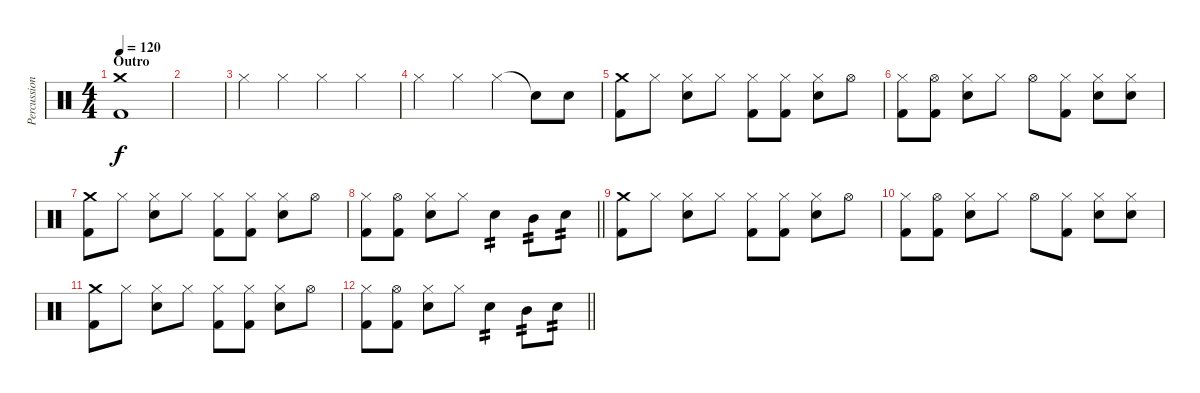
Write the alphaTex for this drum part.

\track ("Percussion" "Percussion") {instrument percussion}
\staff {score}
\articulation defaults
\ts (4 4)
\section ("" "Outro")
\tempo 120
\clef neutral
\ks c
("Crash medium (hit)" "Kick (hit) 2").1{dy f} |
|
"Hi-Hat (closed)".4 "Hi-Hat (closed)".4 "Hi-Hat (closed)".4 "Hi-Hat (closed)".4 |
"Hi-Hat (closed)".4 "Hi-Hat (closed)".4 "Hi-Hat (closed)".4 "Snare (hit)"{t}.8 "Snare (hit) 2".8 |
("Crash medium (hit)" "Kick (hit) 2").8 "Hi-Hat (closed)".8 ("Hi-Hat (closed)" "Snare (hit) 2").8 "Hi-Hat (closed)".8 ("Hi-Hat (closed)" "Kick (hit) 2").8 ("Hi-Hat (closed)" "Kick (hit) 2").8 ("Hi-Hat (closed)" "Snare (hit) 2").8 "Hi-Hat (open)".8 |
("Hi-Hat (closed)" "Kick (hit) 2").8 ("Hi-Hat (open)" "Kick (hit) 2").8 ("Hi-Hat (closed)" "Snare (hit) 2").8 "Hi-Hat (closed)".8 "Hi-Hat (open)".8 ("Hi-Hat (closed)" "Kick (hit) 2").8 ("Hi-Hat (closed)" "Snare (hit) 2").8 ("Hi-Hat (closed)" "Snare (hit) 2").8 |
("Crash medium (hit)" "Kick (hit) 2").8 "Hi-Hat (closed)".8 ("Hi-Hat (closed)" "Snare (hit) 2").8 "Hi-Hat (closed)".8 ("Hi-Hat (closed)" "Kick (hit) 2").8 ("Hi-Hat (closed)" "Kick (hit) 2").8 ("Hi-Hat (closed)" "Snare (hit) 2").8 "Hi-Hat (open)".8 |
\barLineRight lightlight
("Hi-Hat (closed)" "Kick (hit) 2").8 ("Hi-Hat (open)" "Kick (hit) 2").8 ("Hi-Hat (closed)" "Snare (hit) 2").8 "Hi-Hat (closed)".8 "Snare (hit) 2".4{tp 2} "Mid Tom (hit)".8{tp 2} "Snare (hit) 2".8{tp 2} |
("Crash medium (hit)" "Kick (hit) 2").8 "Hi-Hat (closed)".8 ("Hi-Hat (closed)" "Snare (hit) 2").8 "Hi-Hat (closed)".8 ("Hi-Hat (closed)" "Kick (hit) 2").8 ("Hi-Hat (closed)" "Kick (hit) 2").8 ("Hi-Hat (closed)" "Snare (hit) 2").8 "Hi-Hat (open)".8 |
("Hi-Hat (closed)" "Kick (hit) 2").8 ("Hi-Hat (open)" "Kick (hit) 2").8 ("Hi-Hat (closed)" "Snare (hit) 2").8 "Hi-Hat (closed)".8 "Hi-Hat (open)".8 ("Hi-Hat (closed)" "Kick (hit) 2").8 ("Hi-Hat (closed)" "Snare (hit) 2").8 ("Hi-Hat (closed)" "Snare (hit) 2").8 |
("Crash medium (hit)" "Kick (hit) 2").8 "Hi-Hat (closed)".8 ("Hi-Hat (closed)" "Snare (hit) 2").8 "Hi-Hat (closed)".8 ("Hi-Hat (closed)" "Kick (hit) 2").8 ("Hi-Hat (closed)" "Kick (hit) 2").8 ("Hi-Hat (closed)" "Snare (hit) 2").8 "Hi-Hat (open)".8 |
\barLineRight lightlight
("Hi-Hat (closed)" "Kick (hit) 2").8 ("Hi-Hat (open)" "Kick (hit) 2").8 ("Hi-Hat (closed)" "Snare (hit) 2").8 "Hi-Hat (closed)".8 "Snare (hit) 2".4{tp 2} "Mid Tom (hit)".8{tp 2} "Snare (hit) 2".8{tp 2}
